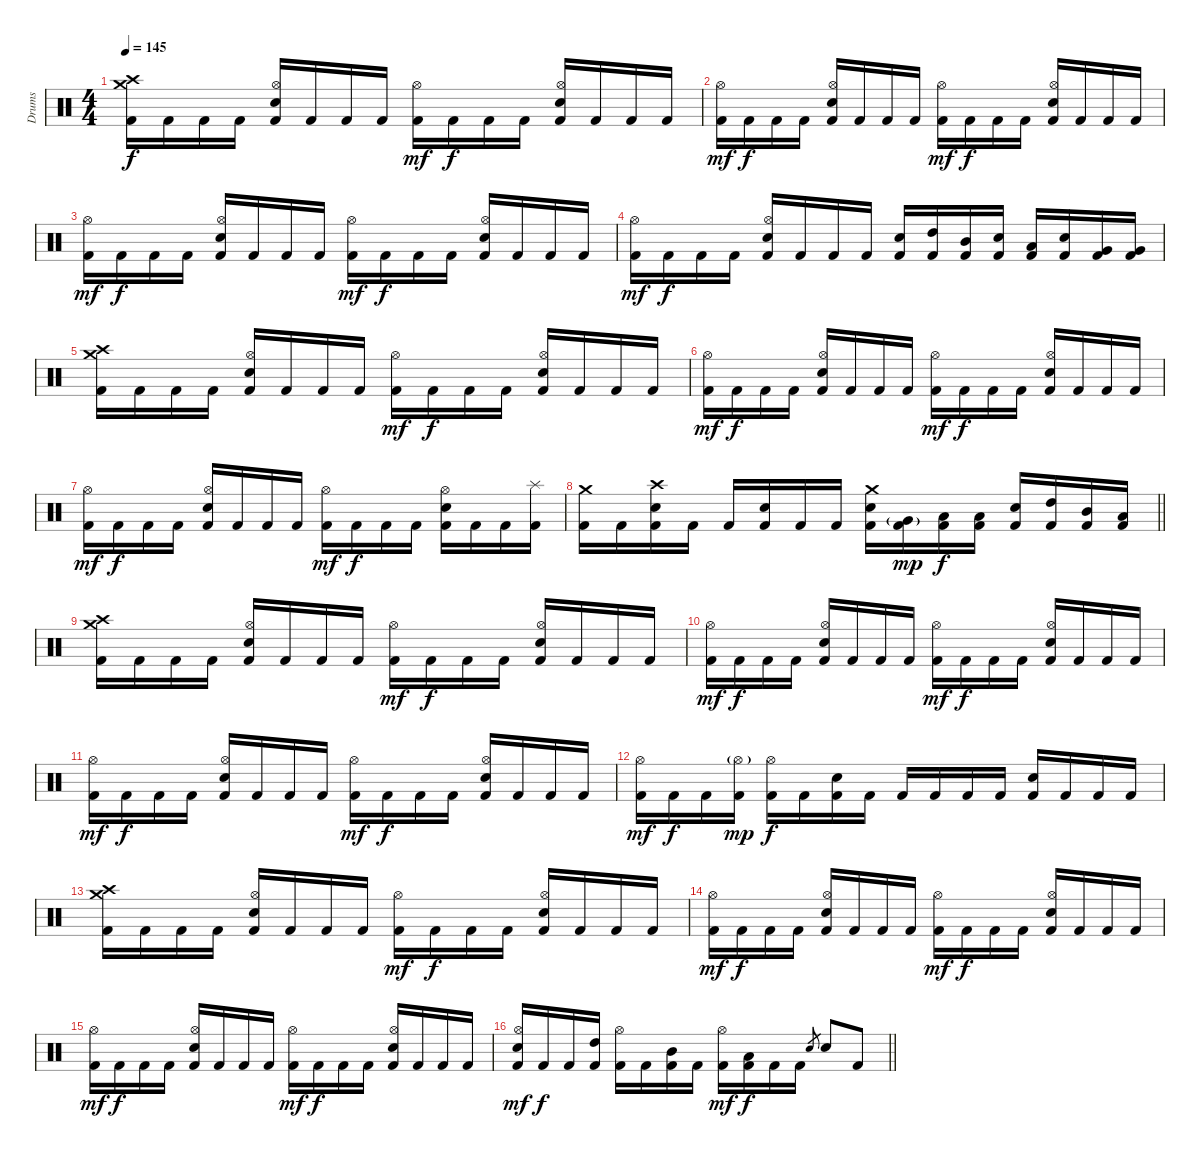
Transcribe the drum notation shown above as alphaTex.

\track ("Drums" "Drums") {instrument percussion}
\staff {score}
\articulation defaults
\ts (4 4)
\tempo 145
\clef neutral
\ks c
("Crash high (hit)" "Crash medium (hit)" "Kick (hit) 2").16{dy f} "Kick (hit) 2".16 "Kick (hit) 2".16 "Kick (hit) 2".16 ("Hi-Hat (open)" "Electric Snare (hit)" "Kick (hit) 2").16 "Kick (hit) 2".16 "Kick (hit) 2".16 "Kick (hit) 2".16 ("Hi-Hat (open)" "Kick (hit) 2").16{dy mf} "Kick (hit) 2".16{dy f} "Kick (hit) 2".16 "Kick (hit) 2".16 ("Hi-Hat (open)" "Electric Snare (hit)" "Kick (hit) 2").16 "Kick (hit) 2".16 "Kick (hit) 2".16 "Kick (hit) 2".16 |
("Hi-Hat (open)" "Kick (hit) 2").16{dy mf} "Kick (hit) 2".16{dy f} "Kick (hit) 2".16 "Kick (hit) 2".16 ("Hi-Hat (open)" "Electric Snare (hit)" "Kick (hit) 2").16 "Kick (hit) 2".16 "Kick (hit) 2".16 "Kick (hit) 2".16 ("Hi-Hat (open)" "Kick (hit) 2").16{dy mf} "Kick (hit) 2".16{dy f} "Kick (hit) 2".16 "Kick (hit) 2".16 ("Hi-Hat (open)" "Electric Snare (hit)" "Kick (hit) 2").16 "Kick (hit) 2".16 "Kick (hit) 2".16 "Kick (hit) 2".16 |
("Hi-Hat (open)" "Kick (hit) 2").16{dy mf} "Kick (hit) 2".16{dy f} "Kick (hit) 2".16 "Kick (hit) 2".16 ("Hi-Hat (open)" "Electric Snare (hit)" "Kick (hit) 2").16 "Kick (hit) 2".16 "Kick (hit) 2".16 "Kick (hit) 2".16 ("Hi-Hat (open)" "Kick (hit) 2").16{dy mf} "Kick (hit) 2".16{dy f} "Kick (hit) 2".16 "Kick (hit) 2".16 ("Hi-Hat (open)" "Electric Snare (hit)" "Kick (hit) 2").16 "Kick (hit) 2".16 "Kick (hit) 2".16 "Kick (hit) 2".16 |
("Hi-Hat (open)" "Kick (hit) 2").16{dy mf} "Kick (hit) 2".16{dy f} "Kick (hit) 2".16 "Kick (hit) 2".16 ("Hi-Hat (open)" "Electric Snare (hit)" "Kick (hit) 2").16 "Kick (hit) 2".16 "Kick (hit) 2".16 "Kick (hit) 2".16 ("Electric Snare (hit)" "Kick (hit) 2").16 ("High Tom (hit)" "Kick (hit) 2").16 ("Mid Tom (hit)" "Kick (hit) 2").16 ("Electric Snare (hit)" "Kick (hit) 2").16 ("Low Tom (hit)" "Kick (hit) 2").16 ("Electric Snare (hit)" "Kick (hit) 2").16 ("Very Low Tom (hit)" "Kick (hit) 2").16 ("Very Low Tom (hit)" "Kick (hit) 2").16 |
("Crash high (hit)" "Crash medium (hit)" "Kick (hit) 2").16 "Kick (hit) 2".16 "Kick (hit) 2".16 "Kick (hit) 2".16 ("Hi-Hat (open)" "Electric Snare (hit)" "Kick (hit) 2").16 "Kick (hit) 2".16 "Kick (hit) 2".16 "Kick (hit) 2".16 ("Hi-Hat (open)" "Kick (hit) 2").16{dy mf} "Kick (hit) 2".16{dy f} "Kick (hit) 2".16 "Kick (hit) 2".16 ("Hi-Hat (open)" "Electric Snare (hit)" "Kick (hit) 2").16 "Kick (hit) 2".16 "Kick (hit) 2".16 "Kick (hit) 2".16 |
("Hi-Hat (open)" "Kick (hit) 2").16{dy mf} "Kick (hit) 2".16{dy f} "Kick (hit) 2".16 "Kick (hit) 2".16 ("Hi-Hat (open)" "Electric Snare (hit)" "Kick (hit) 2").16 "Kick (hit) 2".16 "Kick (hit) 2".16 "Kick (hit) 2".16 ("Hi-Hat (open)" "Kick (hit) 2").16{dy mf} "Kick (hit) 2".16{dy f} "Kick (hit) 2".16 "Kick (hit) 2".16 ("Hi-Hat (open)" "Electric Snare (hit)" "Kick (hit) 2").16 "Kick (hit) 2".16 "Kick (hit) 2".16 "Kick (hit) 2".16 |
("Hi-Hat (open)" "Kick (hit) 2").16{dy mf} "Kick (hit) 2".16{dy f} "Kick (hit) 2".16 "Kick (hit) 2".16 ("Hi-Hat (open)" "Electric Snare (hit)" "Kick (hit) 2").16 "Kick (hit) 2".16 "Kick (hit) 2".16 "Kick (hit) 2".16 ("Hi-Hat (open)" "Kick (hit) 2").16{dy mf} "Kick (hit) 2".16{dy f} "Kick (hit) 2".16 "Kick (hit) 2".16 ("Hi-Hat (open)" "Electric Snare (hit)" "Kick (hit) 2").16 "Kick (hit) 2".16 "Kick (hit) 2".16 ("Splash (hit)" "Kick (hit) 2").16 |
\barLineRight lightlight
("Crash medium (hit)" "Kick (hit) 2").16 "Kick (hit) 2".16 ("Crash high (hit)" "Electric Snare (hit)" "Kick (hit) 2").16 "Kick (hit) 2".16 "Kick (hit) 2".16 ("Electric Snare (hit)" "Kick (hit) 2").16 "Kick (hit) 2".16 "Kick (hit) 2".16 ("Crash medium (hit)" "Electric Snare (hit)" "Kick (hit) 2").16 ("Very Low Tom (hit)"{g} "Kick (hit) 2").16{dy mp} ("Low Tom (hit)" "Kick (hit) 2").16{dy f} ("Low Tom (hit)" "Kick (hit) 2").16 ("Electric Snare (hit)" "Kick (hit) 2").16 ("High Tom (hit)" "Kick (hit) 2").16 ("Mid Tom (hit)" "Kick (hit) 2").16 ("Low Tom (hit)" "Kick (hit) 2").16 |
("Crash high (hit)" "Crash medium (hit)" "Kick (hit) 2").16 "Kick (hit) 2".16 "Kick (hit) 2".16 "Kick (hit) 2".16 ("Hi-Hat (open)" "Electric Snare (hit)" "Kick (hit) 2").16 "Kick (hit) 2".16 "Kick (hit) 2".16 "Kick (hit) 2".16 ("Hi-Hat (open)" "Kick (hit) 2").16{dy mf} "Kick (hit) 2".16{dy f} "Kick (hit) 2".16 "Kick (hit) 2".16 ("Hi-Hat (open)" "Electric Snare (hit)" "Kick (hit) 2").16 "Kick (hit) 2".16 "Kick (hit) 2".16 "Kick (hit) 2".16 |
("Hi-Hat (open)" "Kick (hit) 2").16{dy mf} "Kick (hit) 2".16{dy f} "Kick (hit) 2".16 "Kick (hit) 2".16 ("Hi-Hat (open)" "Electric Snare (hit)" "Kick (hit) 2").16 "Kick (hit) 2".16 "Kick (hit) 2".16 "Kick (hit) 2".16 ("Hi-Hat (open)" "Kick (hit) 2").16{dy mf} "Kick (hit) 2".16{dy f} "Kick (hit) 2".16 "Kick (hit) 2".16 ("Hi-Hat (open)" "Electric Snare (hit)" "Kick (hit) 2").16 "Kick (hit) 2".16 "Kick (hit) 2".16 "Kick (hit) 2".16 |
("Hi-Hat (open)" "Kick (hit) 2").16{dy mf} "Kick (hit) 2".16{dy f} "Kick (hit) 2".16 "Kick (hit) 2".16 ("Hi-Hat (open)" "Electric Snare (hit)" "Kick (hit) 2").16 "Kick (hit) 2".16 "Kick (hit) 2".16 "Kick (hit) 2".16 ("Hi-Hat (open)" "Kick (hit) 2").16{dy mf} "Kick (hit) 2".16{dy f} "Kick (hit) 2".16 "Kick (hit) 2".16 ("Hi-Hat (open)" "Electric Snare (hit)" "Kick (hit) 2").16 "Kick (hit) 2".16 "Kick (hit) 2".16 "Kick (hit) 2".16 |
("Hi-Hat (open)" "Kick (hit) 2").16{dy mf} "Kick (hit) 2".16{dy f} "Kick (hit) 2".16 ("Hi-Hat (open)"{g} "Kick (hit) 2").16{dy mp} ("Hi-Hat (open)" "Kick (hit) 2").16{dy f} "Kick (hit) 2".16 ("Electric Snare (hit)" "Kick (hit) 2").16 "Kick (hit) 2".16 "Kick (hit) 2".16 "Kick (hit) 2".16 "Kick (hit) 2".16 "Kick (hit) 2".16 ("Electric Snare (hit)" "Kick (hit) 2").16 "Kick (hit) 2".16 "Kick (hit) 2".16 "Kick (hit) 2".16 |
("Crash high (hit)" "Crash medium (hit)" "Kick (hit) 2").16 "Kick (hit) 2".16 "Kick (hit) 2".16 "Kick (hit) 2".16 ("Hi-Hat (open)" "Electric Snare (hit)" "Kick (hit) 2").16 "Kick (hit) 2".16 "Kick (hit) 2".16 "Kick (hit) 2".16 ("Hi-Hat (open)" "Kick (hit) 2").16{dy mf} "Kick (hit) 2".16{dy f} "Kick (hit) 2".16 "Kick (hit) 2".16 ("Hi-Hat (open)" "Electric Snare (hit)" "Kick (hit) 2").16 "Kick (hit) 2".16 "Kick (hit) 2".16 "Kick (hit) 2".16 |
("Hi-Hat (open)" "Kick (hit) 2").16{dy mf} "Kick (hit) 2".16{dy f} "Kick (hit) 2".16 "Kick (hit) 2".16 ("Hi-Hat (open)" "Electric Snare (hit)" "Kick (hit) 2").16 "Kick (hit) 2".16 "Kick (hit) 2".16 "Kick (hit) 2".16 ("Hi-Hat (open)" "Kick (hit) 2").16{dy mf} "Kick (hit) 2".16{dy f} "Kick (hit) 2".16 "Kick (hit) 2".16 ("Hi-Hat (open)" "Electric Snare (hit)" "Kick (hit) 2").16 "Kick (hit) 2".16 "Kick (hit) 2".16 "Kick (hit) 2".16 |
("Hi-Hat (open)" "Kick (hit) 2").16{dy mf} "Kick (hit) 2".16{dy f} "Kick (hit) 2".16 "Kick (hit) 2".16 ("Hi-Hat (open)" "Electric Snare (hit)" "Kick (hit) 2").16 "Kick (hit) 2".16 "Kick (hit) 2".16 "Kick (hit) 2".16 ("Hi-Hat (open)" "Kick (hit) 2").16{dy mf} "Kick (hit) 2".16{dy f} "Kick (hit) 2".16 "Kick (hit) 2".16 ("Hi-Hat (open)" "Electric Snare (hit)" "Kick (hit) 2").16 "Kick (hit) 2".16 "Kick (hit) 2".16 "Kick (hit) 2".16 |
\barLineRight lightlight
("Hi-Hat (open)" "Electric Snare (hit)" "Kick (hit) 2").16{dy mf} "Kick (hit) 2".16{dy f} "Kick (hit) 2".16 ("High Tom (hit)" "Kick (hit) 2").16 ("Hi-Hat (open)" "Kick (hit) 2").16 "Kick (hit) 2".16 ("Mid Tom (hit)" "Kick (hit) 2").16 "Kick (hit) 2".16 ("Hi-Hat (open)" "Kick (hit) 2").16{dy mf} ("Low Tom (hit)" "Kick (hit) 2").16{dy f} "Kick (hit) 2".16 "Kick (hit) 2".16 "Electric Snare (hit)".8{gr} "Electric Snare (hit)".8 "Kick (hit) 2".8
